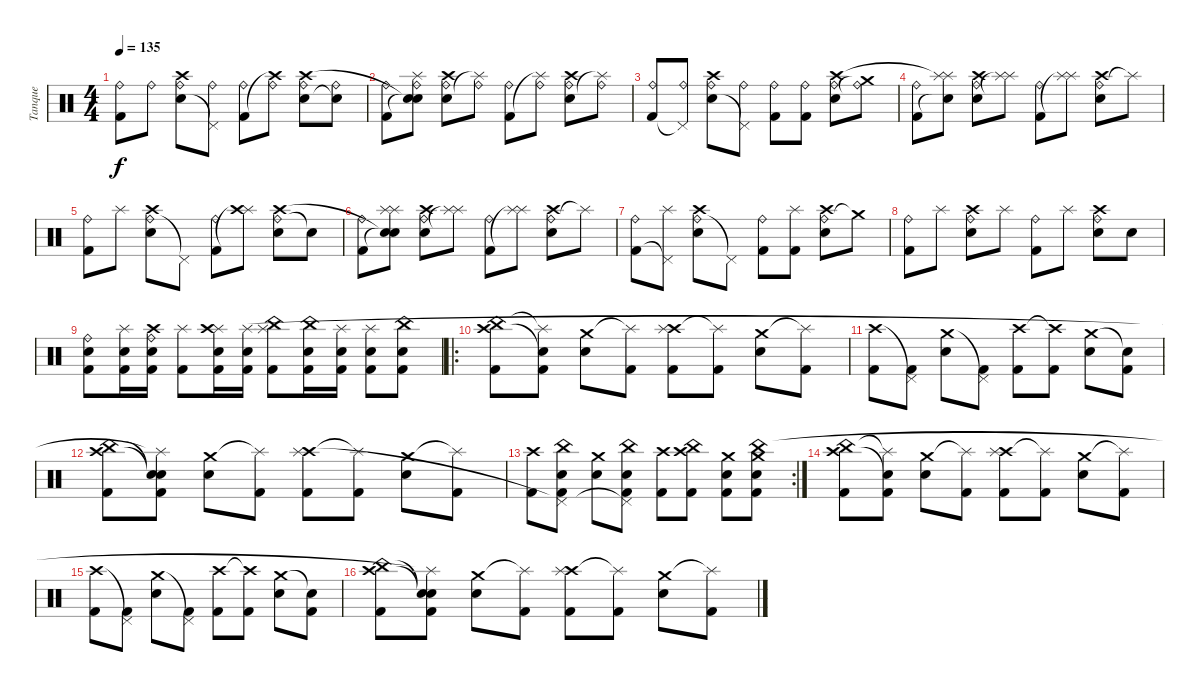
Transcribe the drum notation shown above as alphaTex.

\track ("Tanque" "Tanque") {instrument percussion}
\staff {score}
\articulation defaults
\ts (4 4)
\tempo 135
\clef neutral
\ks c
("Ride (bell)" "Kick (hit) 2").8{dy f} "Ride (bell)".8 ("Ride (bell)" "Snare (hit) 2" "Crash high (hit)").8 ("Ride (bell)" "Pedal Hi-Hat (hit)"{t}).8 ("Ride (bell)" "Kick (hit) 2").8 ("Ride (bell)" "Crash high (hit)"{t}).8 ("Ride (bell)" "Snare (hit) 2" "Crash high (hit)").8 ("Ride (bell)" "Snare (hit)"{t}).8 |
("Ride (bell)" "Kick (hit) 2").8 ("Ride (bell)" "Snare (hit)"{t} "Snare (hit)"{t} "Splash (hit)").8 ("Ride (bell)" "Snare (hit) 2" "Crash high (hit)").8 ("Ride (bell)" "Splash (hit)"{t}).8 ("Ride (bell)" "Kick (hit) 2").8 ("Ride (bell)" "Splash (hit)"{t}).8 ("Ride (bell)" "Snare (hit) 2" "Crash high (hit)").8 ("Ride (bell)" "Splash (hit)"{t}).8 |
("Ride (bell)" "Kick (hit) 2").8 ("Ride (bell)" "Pedal Hi-Hat (hit)"{t}).8 ("Ride (bell)" "Snare (hit) 2" "Crash high (hit)").8 ("Ride (bell)" "Pedal Hi-Hat (hit)"{t}).8 ("Ride (bell)" "Kick (hit) 2").8 ("Ride (bell)" "Kick (hit) 2").8 ("Ride (bell)" "Snare (hit) 2" "Crash high (hit)").8 ("Ride (bell)" "Crash medium (hit)"{t}).8 |
("Ride (bell)" "Kick (hit) 2").8 ("Splash (hit)" "Snare (hit)"{t} "Splash (hit)"{t}).8 ("Ride (bell)" "Snare (hit) 2" "Crash high (hit)").8 ("Splash (hit)" "Splash (hit)"{t}).8 ("Ride (bell)" "Kick (hit) 2").8 ("Splash (hit)" "Splash (hit)"{t}).8 ("Ride (bell)" "Snare (hit) 2" "Crash high (hit)").8 "Splash (hit)"{t}.8 |
("Ride (bell)" "Kick (hit) 2").8 "Splash (hit)".8 ("Ride (bell)" "Snare (hit) 2" "Crash high (hit)").8 "Pedal Hi-Hat (hit)"{t}.8 ("Ride (bell)" "Kick (hit) 2").8 ("Splash (hit)" "Crash high (hit)"{t}).8 ("Ride (bell)" "Snare (hit) 2" "Crash high (hit)").8 "Snare (hit)"{t}.8 |
("Ride (bell)" "Kick (hit) 2").8 ("Splash (hit)" "Snare (hit)"{t} "Snare (hit)"{t} "Splash (hit)").8 ("Ride (bell)" "Snare (hit) 2" "Crash high (hit)").8 ("Splash (hit)" "Splash (hit)"{t}).8 ("Ride (bell)" "Kick (hit) 2").8 ("Splash (hit)" "Splash (hit)"{t}).8 ("Ride (bell)" "Snare (hit) 2" "Crash high (hit)").8 "Splash (hit)"{t}.8 |
("Ride (bell)" "Kick (hit) 2").8 ("Splash (hit)" "Pedal Hi-Hat (hit)"{t}).8 ("Ride (bell)" "Snare (hit) 2" "Crash high (hit)").8 "Pedal Hi-Hat (hit)"{t}.8 ("Ride (bell)" "Kick (hit) 2").8 ("Splash (hit)" "Kick (hit) 2").8 ("Ride (bell)" "Snare (hit) 2" "Crash high (hit)").8 "Crash medium (hit)"{t}.8 |
("Ride (bell)" "Kick (hit) 2").8 "Splash (hit)".8 ("Ride (bell)" "Snare (hit) 2" "Crash high (hit)").8 "Splash (hit)".8 ("Ride (bell)" "Kick (hit) 2").8 "Splash (hit)".8 ("Ride (bell)" "Snare (hit) 2" "Crash high (hit)").8 "Snare (hit) 2".8 |
("Ride (bell)" "Kick (hit) 2" "Snare (hit) 2").8 ("Splash (hit)" "Kick (hit) 2" "Snare (hit) 2").16 ("Ride (bell)" "Kick (hit) 2" "Snare (hit) 2" "Crash high (hit)").16 ("Splash (hit)" "Kick (hit) 2").8 ("Splash (hit)" "Kick (hit) 2" "Snare (hit) 2" "Crash high (hit)").16 ("Splash (hit)" "Kick (hit) 2" "Snare (hit) 2").16 ("Splash (hit)" "Kick (hit) 2" "China (hit)").8 ("Kick (hit) 2" "Snare (hit) 2" "China (hit)").16 ("Kick (hit) 2" "Snare (hit) 2" "Splash (hit)").16 ("Kick (hit) 2" "Snare (hit) 2" "Splash (hit)").8 ("Kick (hit) 2" "Snare (hit) 2" "China (hit)").8 |
\ro
("Kick (hit) 2" "Crash high (hit)" "China (hit)").8 ("Kick (hit) 2" "Snare (hit)"{t} "Splash (hit)"{t}).8 ("Snare (hit) 2" "Crash medium (hit)").8 ("Kick (hit) 2" "Splash (hit)"{t}).8 ("Kick (hit) 2" "Crash high (hit)" "Splash (hit)").8 ("Kick (hit) 2" "Splash (hit)"{t}).8 ("Snare (hit) 2" "Crash medium (hit)").8 ("Kick (hit) 2" "Splash (hit)"{t}).8 |
("Kick (hit) 2" "Crash high (hit)").8 ("Kick (hit) 2" "Pedal Hi-Hat (hit)"{t}).8 ("Snare (hit) 2" "Crash medium (hit)").8 ("Kick (hit) 2" "Pedal Hi-Hat (hit)"{t}).8 ("Kick (hit) 2" "Crash high (hit)").8 ("Kick (hit) 2" "Crash high (hit)"{t}).8 ("Snare (hit) 2" "Crash medium (hit)").8 ("Kick (hit) 2" "Snare (hit)"{t}).8 |
("Kick (hit) 2" "Crash high (hit)" "China (hit)").8 ("Kick (hit) 2" "Snare (hit)"{t} "Snare (hit)"{t} "Splash (hit)"{t}).8 ("Snare (hit) 2" "Crash medium (hit)").8 ("Kick (hit) 2" "Splash (hit)"{t}).8 ("Kick (hit) 2" "Crash high (hit)" "Splash (hit)").8 ("Kick (hit) 2" "Splash (hit)"{t}).8 ("Snare (hit) 2" "Crash medium (hit)").8 ("Kick (hit) 2" "Splash (hit)"{t}).8 |
\rc 2
("Kick (hit) 2" "Crash high (hit)").8 ("Kick (hit) 2" "Snare (hit) 2" "Pedal Hi-Hat (hit)"{t} "China (hit)").8 ("Snare (hit) 2" "Crash medium (hit)").8 ("Kick (hit) 2" "Snare (hit) 2" "Pedal Hi-Hat (hit)"{t} "China (hit)").8 ("Kick (hit) 2" "Crash high (hit)").8 ("Kick (hit) 2" "Crash high (hit)" "China (hit)").8 ("Kick (hit) 2" "Snare (hit) 2" "Crash medium (hit)").8 ("Kick (hit) 2" "Snare (hit) 2" "Crash medium (hit)" "China (hit)").8 |
("Kick (hit) 2" "Crash high (hit)" "China (hit)").8 ("Kick (hit) 2" "Snare (hit)"{t} "Splash (hit)"{t}).8 ("Snare (hit) 2" "Crash medium (hit)").8 ("Kick (hit) 2" "Splash (hit)"{t}).8 ("Kick (hit) 2" "Crash high (hit)" "Splash (hit)").8 ("Kick (hit) 2" "Splash (hit)"{t}).8 ("Snare (hit) 2" "Crash medium (hit)").8 ("Kick (hit) 2" "Splash (hit)"{t}).8 |
("Kick (hit) 2" "Crash high (hit)").8 ("Kick (hit) 2" "Pedal Hi-Hat (hit)"{t}).8 ("Snare (hit) 2" "Crash medium (hit)").8 ("Kick (hit) 2" "Pedal Hi-Hat (hit)"{t}).8 ("Kick (hit) 2" "Crash high (hit)").8 ("Kick (hit) 2" "Crash high (hit)"{t}).8 ("Snare (hit) 2" "Crash medium (hit)").8 ("Kick (hit) 2" "Snare (hit)"{t}).8 |
("Kick (hit) 2" "Crash high (hit)" "China (hit)").8 ("Kick (hit) 2" "Snare (hit)"{t} "Snare (hit)"{t} "Splash (hit)"{t}).8 ("Snare (hit) 2" "Crash medium (hit)").8 ("Kick (hit) 2" "Splash (hit)"{t}).8 ("Kick (hit) 2" "Crash high (hit)" "Splash (hit)").8 ("Kick (hit) 2" "Splash (hit)"{t}).8 ("Snare (hit) 2" "Crash medium (hit)").8 ("Kick (hit) 2" "Splash (hit)"{t}).8
